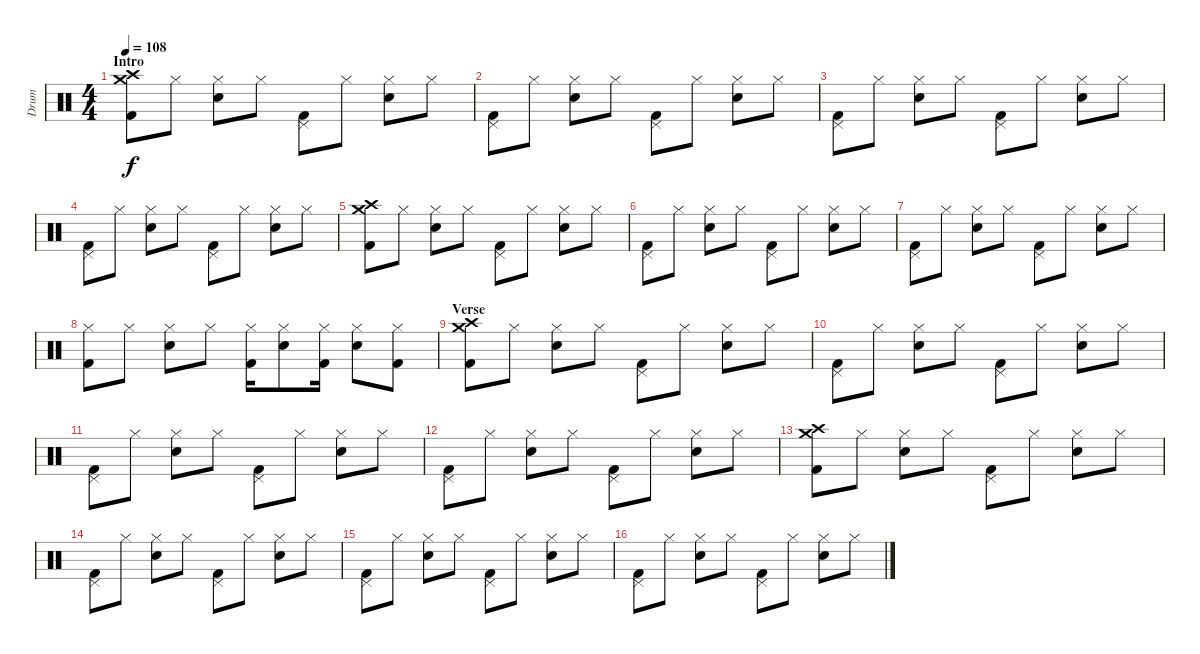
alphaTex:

\track ("Drum" "Drum") {instrument percussion}
\staff {score}
\articulation defaults
\ts (4 4)
\section ("" "Intro")
\tempo 108
\clef neutral
\ks c
("Kick (hit) 2" "Crash high (hit)" "Crash medium (hit)").8{dy f} "Hi-Hat (closed)".8 ("Hi-Hat (closed)" "Electric Snare (hit)").8 "Hi-Hat (closed)".8 ("Pedal Hi-Hat (hit)" "Kick (hit) 2").8 "Hi-Hat (closed)".8 ("Hi-Hat (closed)" "Electric Snare (hit)").8 "Hi-Hat (closed)".8 |
("Pedal Hi-Hat (hit)" "Kick (hit) 2").8 "Hi-Hat (closed)".8 ("Hi-Hat (closed)" "Electric Snare (hit)").8 "Hi-Hat (closed)".8 ("Pedal Hi-Hat (hit)" "Kick (hit) 2").8 "Hi-Hat (closed)".8 ("Hi-Hat (closed)" "Electric Snare (hit)").8 "Hi-Hat (closed)".8 |
("Pedal Hi-Hat (hit)" "Kick (hit) 2").8 "Hi-Hat (closed)".8 ("Hi-Hat (closed)" "Electric Snare (hit)").8 "Hi-Hat (closed)".8 ("Pedal Hi-Hat (hit)" "Kick (hit) 2").8 "Hi-Hat (closed)".8 ("Hi-Hat (closed)" "Electric Snare (hit)").8 "Hi-Hat (closed)".8 |
("Pedal Hi-Hat (hit)" "Kick (hit) 2").8 "Hi-Hat (closed)".8 ("Hi-Hat (closed)" "Electric Snare (hit)").8 "Hi-Hat (closed)".8 ("Pedal Hi-Hat (hit)" "Kick (hit) 2").8 "Hi-Hat (closed)".8 ("Hi-Hat (closed)" "Electric Snare (hit)").8 "Hi-Hat (closed)".8 |
("Kick (hit) 2" "Crash high (hit)" "Crash medium (hit)").8 "Hi-Hat (closed)".8 ("Hi-Hat (closed)" "Electric Snare (hit)").8 "Hi-Hat (closed)".8 ("Pedal Hi-Hat (hit)" "Kick (hit) 2").8 "Hi-Hat (closed)".8 ("Hi-Hat (closed)" "Electric Snare (hit)").8 "Hi-Hat (closed)".8 |
("Pedal Hi-Hat (hit)" "Kick (hit) 2").8 "Hi-Hat (closed)".8 ("Hi-Hat (closed)" "Electric Snare (hit)").8 "Hi-Hat (closed)".8 ("Pedal Hi-Hat (hit)" "Kick (hit) 2").8 "Hi-Hat (closed)".8 ("Hi-Hat (closed)" "Electric Snare (hit)").8 "Hi-Hat (closed)".8 |
("Pedal Hi-Hat (hit)" "Kick (hit) 2").8 "Hi-Hat (closed)".8 ("Hi-Hat (closed)" "Electric Snare (hit)").8 "Hi-Hat (closed)".8 ("Pedal Hi-Hat (hit)" "Kick (hit) 2").8 "Hi-Hat (closed)".8 ("Hi-Hat (closed)" "Electric Snare (hit)").8 "Hi-Hat (closed)".8 |
("Hi-Hat (closed)" "Kick (hit) 2").8 "Hi-Hat (closed)".8 ("Hi-Hat (closed)" "Electric Snare (hit)").8 "Hi-Hat (closed)".8 ("Hi-Hat (closed)" "Kick (hit) 2").16 ("Hi-Hat (closed)" "Electric Snare (hit)").8 ("Hi-Hat (closed)" "Kick (hit) 2").16 ("Hi-Hat (closed)" "Electric Snare (hit)").8 ("Hi-Hat (closed)" "Kick (hit) 2").8 |
\section ("" "Verse")
("Kick (hit) 2" "Crash high (hit)" "Crash medium (hit)").8 "Hi-Hat (closed)".8 ("Hi-Hat (closed)" "Electric Snare (hit)").8 "Hi-Hat (closed)".8 ("Pedal Hi-Hat (hit)" "Kick (hit) 2").8 "Hi-Hat (closed)".8 ("Hi-Hat (closed)" "Electric Snare (hit)").8 "Hi-Hat (closed)".8 |
("Pedal Hi-Hat (hit)" "Kick (hit) 2").8 "Hi-Hat (closed)".8 ("Hi-Hat (closed)" "Electric Snare (hit)").8 "Hi-Hat (closed)".8 ("Pedal Hi-Hat (hit)" "Kick (hit) 2").8 "Hi-Hat (closed)".8 ("Hi-Hat (closed)" "Electric Snare (hit)").8 "Hi-Hat (closed)".8 |
("Pedal Hi-Hat (hit)" "Kick (hit) 2").8 "Hi-Hat (closed)".8 ("Hi-Hat (closed)" "Electric Snare (hit)").8 "Hi-Hat (closed)".8 ("Pedal Hi-Hat (hit)" "Kick (hit) 2").8 "Hi-Hat (closed)".8 ("Hi-Hat (closed)" "Electric Snare (hit)").8 "Hi-Hat (closed)".8 |
("Pedal Hi-Hat (hit)" "Kick (hit) 2").8 "Hi-Hat (closed)".8 ("Hi-Hat (closed)" "Electric Snare (hit)").8 "Hi-Hat (closed)".8 ("Pedal Hi-Hat (hit)" "Kick (hit) 2").8 "Hi-Hat (closed)".8 ("Hi-Hat (closed)" "Electric Snare (hit)").8 "Hi-Hat (closed)".8 |
("Kick (hit) 2" "Crash high (hit)" "Crash medium (hit)").8 "Hi-Hat (closed)".8 ("Hi-Hat (closed)" "Electric Snare (hit)").8 "Hi-Hat (closed)".8 ("Pedal Hi-Hat (hit)" "Kick (hit) 2").8 "Hi-Hat (closed)".8 ("Hi-Hat (closed)" "Electric Snare (hit)").8 "Hi-Hat (closed)".8 |
("Pedal Hi-Hat (hit)" "Kick (hit) 2").8 "Hi-Hat (closed)".8 ("Hi-Hat (closed)" "Electric Snare (hit)").8 "Hi-Hat (closed)".8 ("Pedal Hi-Hat (hit)" "Kick (hit) 2").8 "Hi-Hat (closed)".8 ("Hi-Hat (closed)" "Electric Snare (hit)").8 "Hi-Hat (closed)".8 |
("Pedal Hi-Hat (hit)" "Kick (hit) 2").8 "Hi-Hat (closed)".8 ("Hi-Hat (closed)" "Electric Snare (hit)").8 "Hi-Hat (closed)".8 ("Pedal Hi-Hat (hit)" "Kick (hit) 2").8 "Hi-Hat (closed)".8 ("Hi-Hat (closed)" "Electric Snare (hit)").8 "Hi-Hat (closed)".8 |
("Pedal Hi-Hat (hit)" "Kick (hit) 2").8 "Hi-Hat (closed)".8 ("Hi-Hat (closed)" "Electric Snare (hit)").8 "Hi-Hat (closed)".8 ("Pedal Hi-Hat (hit)" "Kick (hit) 2").8 "Hi-Hat (closed)".8 ("Hi-Hat (closed)" "Electric Snare (hit)").8 "Hi-Hat (closed)".8
